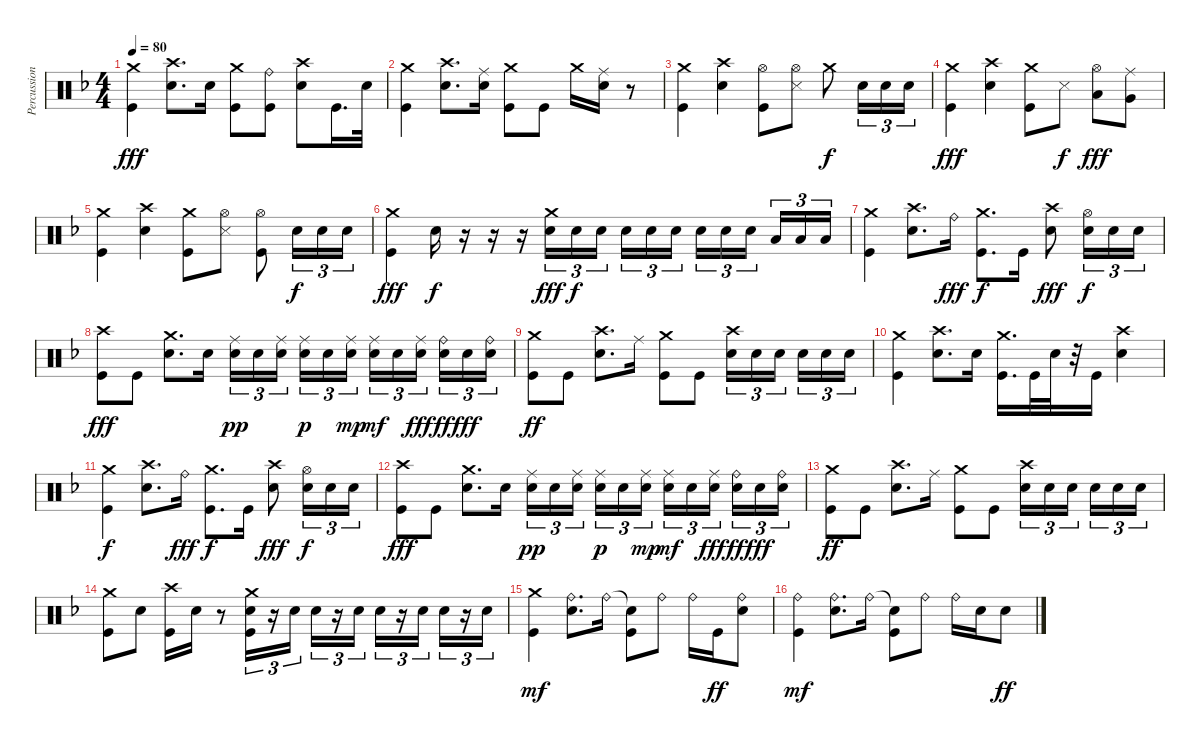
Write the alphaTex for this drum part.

\track ("Percussion" "Percussion") {instrument percussion}
\staff {score}
\articulation defaults
\ts (4 4)
\tempo 80
\clef neutral
\ks f
("Crash medium (hit)" "Kick (hit)").4{dy fff} ("Crash high (hit)" "Electric Snare (hit)").8{d} "Electric Snare (hit)".16 ("Crash medium (hit)" "Kick (hit)").8 ("Ride (bell)" "Kick (hit)").8 ("Crash high (hit)" "Electric Snare (hit)").8 "Kick (hit)".16{d} "Electric Snare (hit)".32 |
("Crash medium (hit)" "Kick (hit)").4 ("Crash high (hit)" "Electric Snare (hit)").8{d} ("Ride (middle)" "Electric Snare (hit)").16 ("Crash medium (hit)" "Kick (hit)").8 "Kick (hit)".8 "Crash medium (hit)".16 ("Ride (middle)" "Electric Snare (hit)").16 r.8 |
("Crash medium (hit)" "Kick (hit)").4 ("Electric Snare (hit)" "Crash high (hit)").4 ("Hi-Hat (open)" "Kick (hit)").8 ("Hi-Hat (open)" "Snare (side stick) 3").8 "Crash medium (hit)".8{dy f} "Electric Snare (hit)".16{tu (3 2)} "Electric Snare (hit)".16{tu (3 2)} "Electric Snare (hit)".16{tu (3 2)} |
("Crash medium (hit)" "Kick (hit)").4{dy fff} ("Crash high (hit)" "Electric Snare (hit)").4 ("Crash medium (hit)" "Kick (hit)").8 "Snare (side stick) 3".8{dy f} ("Hi-Hat (open)" "Low Tom (hit)").8{dy fff} ("Ride (middle)" "Very Low Tom (hit)").8 |
("Crash medium (hit)" "Kick (hit)").4 ("Electric Snare (hit)" "Crash high (hit)").4 ("Crash medium (hit)" "Kick (hit)").8 ("Snare (side stick) 3" "Hi-Hat (open)").8 ("Hi-Hat (open)" "Kick (hit)").8 "Electric Snare (hit)".16{tu (3 2) dy f} "Electric Snare (hit)".16{tu (3 2)} "Electric Snare (hit)".16{tu (3 2)} |
("Crash medium (hit)" "Kick (hit)").4{dy fff} "Electric Snare (hit)".16{dy f} r.16{volume 6} r.16 r.16{volume 13} ("Crash medium (hit)" "Electric Snare (hit)").16{tu (3 2) dy fff} "Electric Snare (hit)".16{tu (3 2) dy f} "Electric Snare (hit)".16{tu (3 2) beam splitsecondary} "Electric Snare (hit)".16{tu (3 2)} "Electric Snare (hit)".16{tu (3 2)} "Electric Snare (hit)".16{tu (3 2)} "Electric Snare (hit)".16{tu (3 2)} "Electric Snare (hit)".16{tu (3 2)} "Electric Snare (hit)".16{tu (3 2) beam splitsecondary} "Low Tom (hit)".16{tu (3 2)} "Low Tom (hit)".16{tu (3 2)} "Low Tom (hit)".16{tu (3 2)} |
("Crash medium (hit)" "Kick (hit)").4 ("Crash high (hit)" "Electric Snare (hit)").8{d} "Ride (bell)".16{dy fff} ("Crash medium (hit)" "Kick (hit)").8{d dy f} "Kick (hit)".16 ("Crash high (hit)" "Electric Snare (hit)").8{dy fff} ("Hi-Hat (open)" "Electric Snare (hit)").16{tu (3 2) dy f} "Electric Snare (hit)".16{tu (3 2)} "Electric Snare (hit)".16{tu (3 2)} |
("Kick (hit)" "Crash high (hit)").8{dy fff} "Kick (hit)".8 ("Crash medium (hit)" "Electric Snare (hit)").8{d} "Electric Snare (hit)".16 ("Ride (middle)" "Electric Snare (hit)").16{tu (3 2) dy pp} "Electric Snare (hit)".16{tu (3 2)} ("Ride (middle)" "Electric Snare (hit)").16{tu (3 2) beam splitsecondary} ("Ride (middle)" "Electric Snare (hit)").16{tu (3 2) dy p} "Electric Snare (hit)".16{tu (3 2)} ("Ride (middle)" "Electric Snare (hit)").16{tu (3 2) dy mp} ("Ride (middle)" "Electric Snare (hit)").16{tu (3 2) dy mf} "Electric Snare (hit)".16{tu (3 2)} ("Ride (middle)" "Electric Snare (hit)").16{tu (3 2) dy fff beam splitsecondary} ("Ride (bell)" "Electric Snare (hit)").16{tu (3 2) dy ff} "Electric Snare (hit)".16{tu (3 2) dy fff} ("Ride (bell)" "Electric Snare (hit)").16{tu (3 2)} |
("Crash medium (hit)" "Kick (hit)").8{dy ff} "Kick (hit)".8 ("Crash high (hit)" "Electric Snare (hit)").8{d} "Ride (middle)".16 ("Crash medium (hit)" "Kick (hit)").8 "Kick (hit)".8 ("Crash high (hit)" "Electric Snare (hit)").16{tu (3 2)} "Electric Snare (hit)".16{tu (3 2)} "Electric Snare (hit)".16{tu (3 2) beam splitsecondary} "Electric Snare (hit)".16{tu (3 2)} "Electric Snare (hit)".16{tu (3 2)} "Electric Snare (hit)".16{tu (3 2)} |
("Crash medium (hit)" "Kick (hit)").4 ("Crash high (hit)" "Electric Snare (hit)").8{d} "Electric Snare (hit)".16 ("Crash medium (hit)" "Kick (hit)").16{d} "Kick (hit)".32 "Electric Snare (hit)".32 r.32 "Kick (hit)".16 ("Crash high (hit)" "Electric Snare (hit)").4 |
("Crash medium (hit)" "Kick (hit)").4{dy f} ("Crash high (hit)" "Electric Snare (hit)").8{d} "Ride (bell)".16{dy fff} ("Crash medium (hit)" "Kick (hit)").8{d dy f} "Kick (hit)".16 ("Crash high (hit)" "Electric Snare (hit)").8{dy fff} ("Hi-Hat (open)" "Electric Snare (hit)").16{tu (3 2) dy f} "Electric Snare (hit)".16{tu (3 2)} "Electric Snare (hit)".16{tu (3 2)} |
("Kick (hit)" "Crash high (hit)").8{dy fff} "Kick (hit)".8 ("Crash medium (hit)" "Electric Snare (hit)").8{d} "Electric Snare (hit)".16 ("Ride (middle)" "Electric Snare (hit)").16{tu (3 2) dy pp} "Electric Snare (hit)".16{tu (3 2)} ("Ride (middle)" "Electric Snare (hit)").16{tu (3 2) beam splitsecondary} ("Ride (middle)" "Electric Snare (hit)").16{tu (3 2) dy p} "Electric Snare (hit)".16{tu (3 2)} ("Ride (middle)" "Electric Snare (hit)").16{tu (3 2) dy mp} ("Ride (middle)" "Electric Snare (hit)").16{tu (3 2) dy mf} "Electric Snare (hit)".16{tu (3 2)} ("Ride (middle)" "Electric Snare (hit)").16{tu (3 2) dy fff beam splitsecondary} ("Ride (bell)" "Electric Snare (hit)").16{tu (3 2) dy ff} "Electric Snare (hit)".16{tu (3 2) dy fff} ("Ride (bell)" "Electric Snare (hit)").16{tu (3 2)} |
("Crash medium (hit)" "Kick (hit)").8{dy ff} "Kick (hit)".8 ("Crash high (hit)" "Electric Snare (hit)").8{d} "Ride (middle)".16 ("Crash medium (hit)" "Kick (hit)").8 "Kick (hit)".8 ("Crash high (hit)" "Electric Snare (hit)").16{tu (3 2)} "Electric Snare (hit)".16{tu (3 2)} "Electric Snare (hit)".16{tu (3 2) beam splitsecondary} "Electric Snare (hit)".16{tu (3 2)} "Electric Snare (hit)".16{tu (3 2)} "Electric Snare (hit)".16{tu (3 2)} |
("Crash medium (hit)" "Kick (hit)").8 "Electric Snare (hit)".8 ("Crash high (hit)" "Kick (hit)").16 "Electric Snare (hit)".16 r.8 ("Crash medium (hit)" "Electric Snare (hit)" "Kick (hit)").16{tu (3 2)} r.16{tu (3 2)} "Electric Snare (hit)".16{tu (3 2)} "Electric Snare (hit)".16{tu (3 2)} r.16{tu (3 2)} "Electric Snare (hit)".16{tu (3 2)} "Electric Snare (hit)".16{tu (3 2)} r.16{tu (3 2)} "Electric Snare (hit)".16{tu (3 2)} "Electric Snare (hit)".16{tu (3 2)} r.16{tu (3 2)} "Electric Snare (hit)".16{tu (3 2)} |
("Crash medium (hit)" "Kick (hit)").4{dy mf} ("Ride (bell)" "Electric Snare (hit)").8{d} "Ride (bell)".16 ("Snare (hit)"{t} "Kick (hit)").8 "Ride (bell)".8 "Ride (bell)".16 "Kick (hit)".16{dy ff} ("Ride (bell)" "Electric Snare (hit)").8 |
("Ride (bell)" "Kick (hit)").4{dy mf} ("Ride (bell)" "Electric Snare (hit)").8{d} "Ride (bell)".16 ("Snare (hit)"{t} "Kick (hit)").8 "Ride (bell)".8 "Ride (bell)".16 "Electric Snare (hit)".16 "Electric Snare (hit)".8{dy ff}
